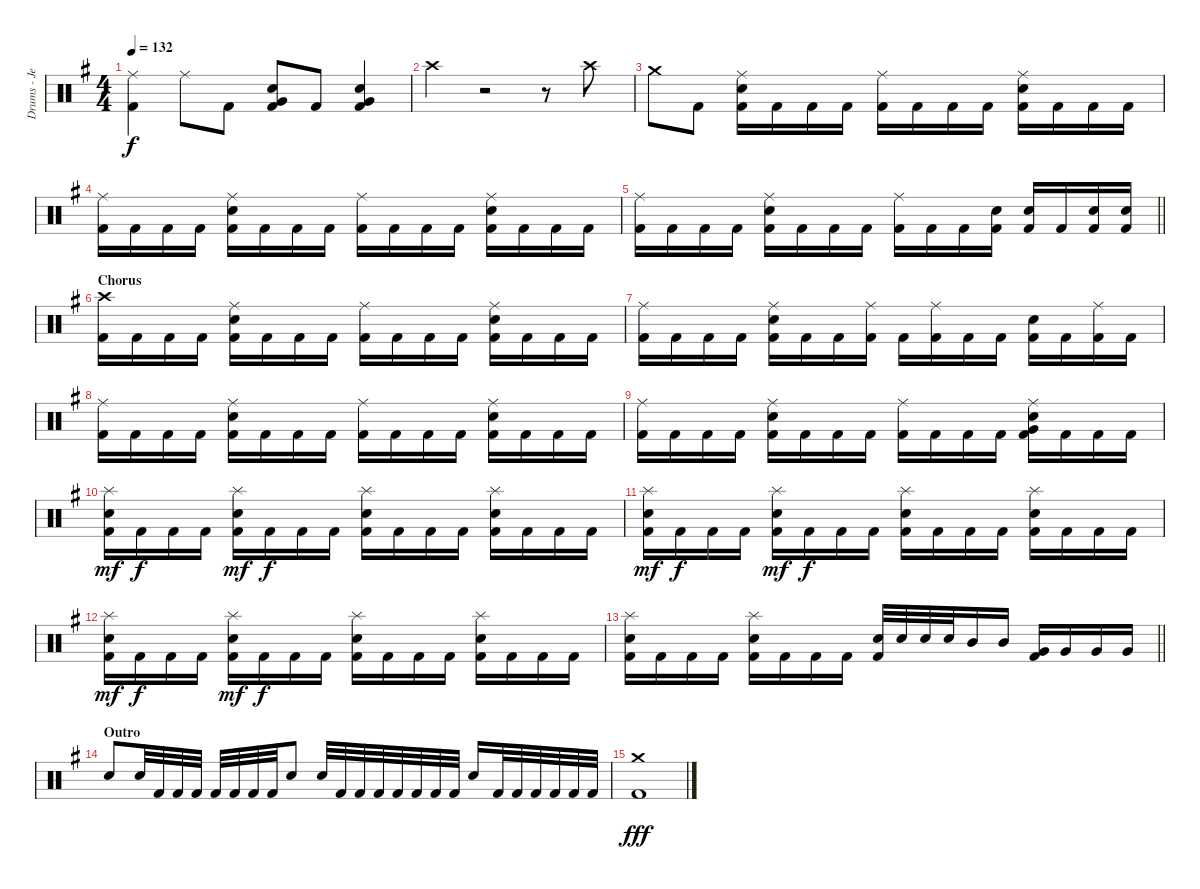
\track ("Drums - Jeroen Simons " "Drums - Je") {instrument percussion}
\staff {score}
\articulation defaults
\ts (4 4)
\tempo 132
\clef neutral
\ks g
("Ride (middle)" "Kick (hit) 2").4{dy f} "Ride (middle)".8 "Kick (hit) 2".8 ("Very Low Tom (hit)" "Electric Snare (hit)" "Kick (hit) 2").8 "Kick (hit) 2".8 ("Very Low Tom (hit)" "Electric Snare (hit)" "Kick (hit) 2").4 |
"Crash high (hit)".4 r.2 r.8 "Crash high (hit)".8 |
"Crash medium (hit)".8 "Kick (hit) 2".8 ("Ride (middle)" "Electric Snare (hit)" "Kick (hit) 2").16 "Kick (hit) 2".16 "Kick (hit) 2".16 "Kick (hit) 2".16 ("Ride (middle)" "Kick (hit) 2").16 "Kick (hit) 2".16 "Kick (hit) 2".16 "Kick (hit) 2".16 ("Ride (middle)" "Electric Snare (hit)" "Kick (hit) 2").16 "Kick (hit) 2".16 "Kick (hit) 2".16 "Kick (hit) 2".16 |
("Ride (middle)" "Kick (hit) 2").16 "Kick (hit) 2".16 "Kick (hit) 2".16 "Kick (hit) 2".16 ("Ride (middle)" "Electric Snare (hit)" "Kick (hit) 2").16 "Kick (hit) 2".16 "Kick (hit) 2".16 "Kick (hit) 2".16 ("Ride (middle)" "Kick (hit) 2").16 "Kick (hit) 2".16 "Kick (hit) 2".16 "Kick (hit) 2".16 ("Ride (middle)" "Electric Snare (hit)" "Kick (hit) 2").16 "Kick (hit) 2".16 "Kick (hit) 2".16 "Kick (hit) 2".16 |
\barLineRight lightlight
("Ride (middle)" "Kick (hit) 2").16 "Kick (hit) 2".16 "Kick (hit) 2".16 "Kick (hit) 2".16 ("Ride (middle)" "Electric Snare (hit)" "Kick (hit) 2").16 "Kick (hit) 2".16 "Kick (hit) 2".16 "Kick (hit) 2".16 ("Ride (middle)" "Kick (hit) 2").16 "Kick (hit) 2".16 "Kick (hit) 2".16 ("Electric Snare (hit)" "Kick (hit) 2").16 ("Electric Snare (hit)" "Kick (hit) 2").16 "Kick (hit) 2".16 ("Electric Snare (hit)" "Kick (hit) 2").16 ("Electric Snare (hit)" "Kick (hit) 2").16 |
\section ("" "Chorus")
("Crash high (hit)" "Kick (hit) 2").16 "Kick (hit) 2".16 "Kick (hit) 2".16 "Kick (hit) 2".16 ("Ride (middle)" "Electric Snare (hit)" "Kick (hit) 2").16 "Kick (hit) 2".16 "Kick (hit) 2".16 "Kick (hit) 2".16 ("Ride (middle)" "Kick (hit) 2").16 "Kick (hit) 2".16 "Kick (hit) 2".16 "Kick (hit) 2".16 ("Ride (middle)" "Electric Snare (hit)" "Kick (hit) 2").16 "Kick (hit) 2".16 "Kick (hit) 2".16 "Kick (hit) 2".16 |
("Ride (middle)" "Kick (hit) 2").16 "Kick (hit) 2".16 "Kick (hit) 2".16 "Kick (hit) 2".16 ("Ride (middle)" "Electric Snare (hit)" "Kick (hit) 2").16 "Kick (hit) 2".16 "Kick (hit) 2".16 ("Ride (middle)" "Kick (hit) 2").16 "Kick (hit) 2".16 ("Ride (middle)" "Kick (hit) 2").16 "Kick (hit) 2".16 "Kick (hit) 2".16 ("Electric Snare (hit)" "Kick (hit) 2").16 "Kick (hit) 2".16 ("Ride (middle)" "Kick (hit) 2").16 "Kick (hit) 2".16 |
("Ride (middle)" "Kick (hit) 2").16 "Kick (hit) 2".16 "Kick (hit) 2".16 "Kick (hit) 2".16 ("Ride (middle)" "Electric Snare (hit)" "Kick (hit) 2").16 "Kick (hit) 2".16 "Kick (hit) 2".16 "Kick (hit) 2".16 ("Ride (middle)" "Kick (hit) 2").16 "Kick (hit) 2".16 "Kick (hit) 2".16 "Kick (hit) 2".16 ("Ride (middle)" "Electric Snare (hit)" "Kick (hit) 2").16 "Kick (hit) 2".16 "Kick (hit) 2".16 "Kick (hit) 2".16 |
("Ride (middle)" "Kick (hit) 2").16 "Kick (hit) 2".16 "Kick (hit) 2".16 "Kick (hit) 2".16 ("Ride (middle)" "Electric Snare (hit)" "Kick (hit) 2").16 "Kick (hit) 2".16 "Kick (hit) 2".16 "Kick (hit) 2".16 ("Ride (middle)" "Kick (hit) 2").16 "Kick (hit) 2".16 "Kick (hit) 2".16 "Kick (hit) 2".16 ("Ride (middle)" "Very Low Tom (hit)" "Electric Snare (hit)" "Kick (hit) 2").16 "Kick (hit) 2".16 "Kick (hit) 2".16 "Kick (hit) 2".16 |
("Splash (hit)" "Electric Snare (hit)" "Kick (hit) 2").16{dy mf} "Kick (hit) 2".16{dy f} "Kick (hit) 2".16 "Kick (hit) 2".16 ("Splash (hit)" "Electric Snare (hit)" "Kick (hit) 2").16{dy mf} "Kick (hit) 2".16{dy f} "Kick (hit) 2".16 "Kick (hit) 2".16 ("Splash (hit)" "Electric Snare (hit)" "Kick (hit) 2").16 "Kick (hit) 2".16 "Kick (hit) 2".16 "Kick (hit) 2".16 ("Splash (hit)" "Electric Snare (hit)" "Kick (hit) 2").16 "Kick (hit) 2".16 "Kick (hit) 2".16 "Kick (hit) 2".16 |
("Splash (hit)" "Electric Snare (hit)" "Kick (hit) 2").16{dy mf} "Kick (hit) 2".16{dy f} "Kick (hit) 2".16 "Kick (hit) 2".16 ("Splash (hit)" "Electric Snare (hit)" "Kick (hit) 2").16{dy mf} "Kick (hit) 2".16{dy f} "Kick (hit) 2".16 "Kick (hit) 2".16 ("Splash (hit)" "Electric Snare (hit)" "Kick (hit) 2").16 "Kick (hit) 2".16 "Kick (hit) 2".16 "Kick (hit) 2".16 ("Splash (hit)" "Electric Snare (hit)" "Kick (hit) 2").16 "Kick (hit) 2".16 "Kick (hit) 2".16 "Kick (hit) 2".16 |
("Splash (hit)" "Electric Snare (hit)" "Kick (hit) 2").16{dy mf} "Kick (hit) 2".16{dy f} "Kick (hit) 2".16 "Kick (hit) 2".16 ("Splash (hit)" "Electric Snare (hit)" "Kick (hit) 2").16{dy mf} "Kick (hit) 2".16{dy f} "Kick (hit) 2".16 "Kick (hit) 2".16 ("Splash (hit)" "Electric Snare (hit)" "Kick (hit) 2").16 "Kick (hit) 2".16 "Kick (hit) 2".16 "Kick (hit) 2".16 ("Splash (hit)" "Electric Snare (hit)" "Kick (hit) 2").16 "Kick (hit) 2".16 "Kick (hit) 2".16 "Kick (hit) 2".16 |
\barLineRight lightlight
("Splash (hit)" "Electric Snare (hit)" "Kick (hit) 2").16 "Kick (hit) 2".16 "Kick (hit) 2".16 "Kick (hit) 2".16 ("Splash (hit)" "Electric Snare (hit)" "Kick (hit) 2").16 "Kick (hit) 2".16 "Kick (hit) 2".16 "Kick (hit) 2".16 ("Electric Snare (hit)" "Kick (hit) 2").32 "Electric Snare (hit)".32 "Electric Snare (hit)".32 "Electric Snare (hit)".32 "Mid Tom (hit)".16 "Mid Tom (hit)".16 ("Very Low Tom (hit)" "Kick (hit) 2").16 "Very Low Tom (hit)".16 "Very Low Tom (hit)".16 "Very Low Tom (hit)".16 |
\section ("" "Outro")
"Electric Snare (hit)".8 "Electric Snare (hit)".32 "Kick (hit) 2".32 "Kick (hit) 2".32 "Kick (hit) 2".32 "Kick (hit) 2".32 "Kick (hit) 2".32 "Kick (hit) 2".32 "Kick (hit) 2".32 "Electric Snare (hit)".8 "Electric Snare (hit)".32 "Kick (hit) 2".32 "Kick (hit) 2".32 "Kick (hit) 2".32 "Kick (hit) 2".32 "Kick (hit) 2".32 "Kick (hit) 2".32 "Kick (hit) 2".32 "Electric Snare (hit)".16 "Kick (hit) 2".32 "Kick (hit) 2".32 "Kick (hit) 2".32 "Kick (hit) 2".32 "Kick (hit) 2".32 "Kick (hit) 2".32 |
("Crash medium (hit)" "Kick (hit) 2").1{dy fff}
